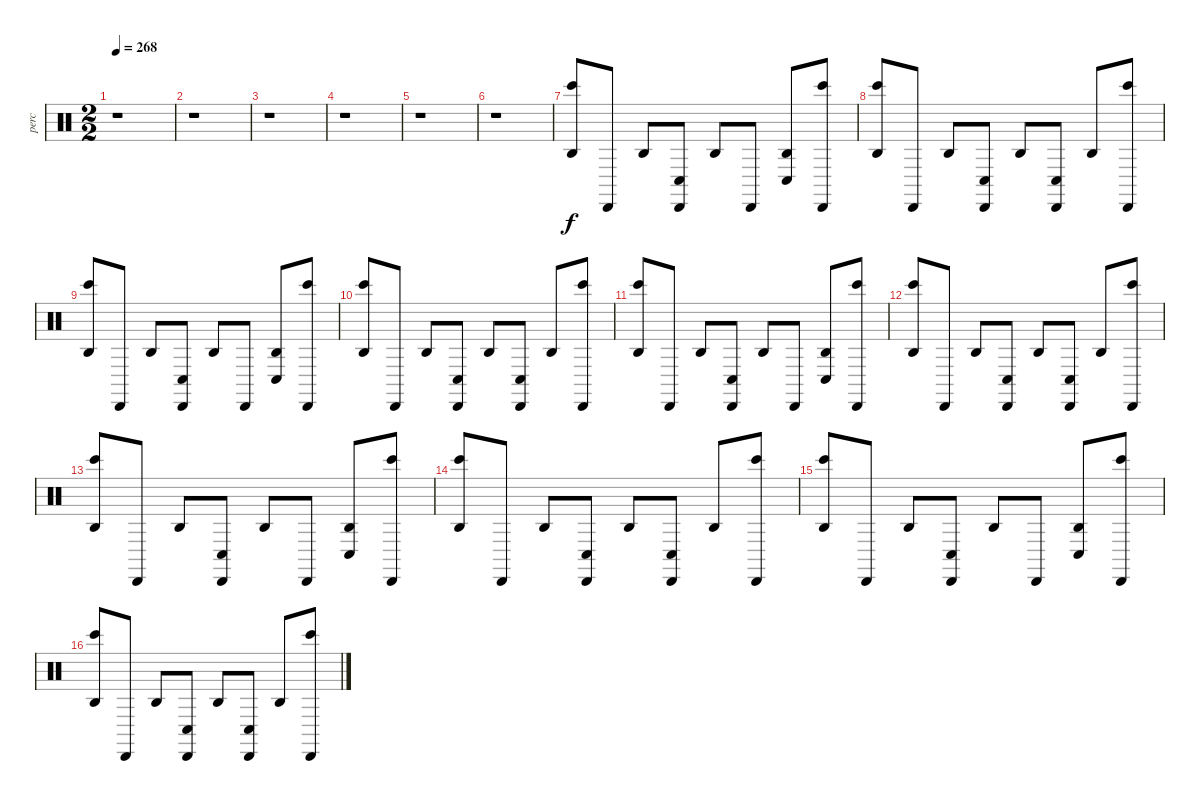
\track ("perc" "perc") {instrument percussion}
\staff {score}
\articulation defaults
\ts (2 2)
\tempo 268
\clef neutral
\ks c
r.1{dy f} |
r.1 |
r.1 |
r.1 |
r.1 |
r.1 |
("Bongo High (hit)" "Agogo high (hit)").8 "Cabasa (hit)".8 "Agogo high (hit)".8 ("Conga low (hit)" "Cabasa (hit)").8 "Agogo high (hit)".8 "Cabasa (hit)".8 ("Conga low (hit)" "Agogo high (hit)").8 ("Bongo High (hit)" "Cabasa (hit)").8 |
("Bongo High (hit)" "Agogo high (hit)").8 "Cabasa (hit)".8 "Agogo high (hit)".8 ("Conga low (hit)" "Cabasa (hit)").8 "Agogo high (hit)".8 ("Conga low (hit)" "Cabasa (hit)").8 "Agogo high (hit)".8 ("Bongo High (hit)" "Cabasa (hit)").8 |
("Bongo High (hit)" "Agogo high (hit)").8 "Cabasa (hit)".8 "Agogo high (hit)".8 ("Conga low (hit)" "Cabasa (hit)").8 "Agogo high (hit)".8 "Cabasa (hit)".8 ("Conga low (hit)" "Agogo high (hit)").8 ("Bongo High (hit)" "Cabasa (hit)").8 |
("Bongo High (hit)" "Agogo high (hit)").8 "Cabasa (hit)".8 "Agogo high (hit)".8 ("Conga low (hit)" "Cabasa (hit)").8 "Agogo high (hit)".8 ("Conga low (hit)" "Cabasa (hit)").8 "Agogo high (hit)".8 ("Bongo High (hit)" "Cabasa (hit)").8 |
("Bongo High (hit)" "Agogo high (hit)").8 "Cabasa (hit)".8 "Agogo high (hit)".8 ("Conga low (hit)" "Cabasa (hit)").8 "Agogo high (hit)".8 "Cabasa (hit)".8 ("Conga low (hit)" "Agogo high (hit)").8 ("Bongo High (hit)" "Cabasa (hit)").8 |
("Bongo High (hit)" "Agogo high (hit)").8 "Cabasa (hit)".8 "Agogo high (hit)".8 ("Conga low (hit)" "Cabasa (hit)").8 "Agogo high (hit)".8 ("Conga low (hit)" "Cabasa (hit)").8 "Agogo high (hit)".8 ("Bongo High (hit)" "Cabasa (hit)").8 |
("Bongo High (hit)" "Agogo high (hit)").8 "Cabasa (hit)".8 "Agogo high (hit)".8 ("Conga low (hit)" "Cabasa (hit)").8 "Agogo high (hit)".8 "Cabasa (hit)".8 ("Conga low (hit)" "Agogo high (hit)").8 ("Bongo High (hit)" "Cabasa (hit)").8 |
("Bongo High (hit)" "Agogo high (hit)").8 "Cabasa (hit)".8 "Agogo high (hit)".8 ("Conga low (hit)" "Cabasa (hit)").8 "Agogo high (hit)".8 ("Conga low (hit)" "Cabasa (hit)").8 "Agogo high (hit)".8 ("Bongo High (hit)" "Cabasa (hit)").8 |
("Bongo High (hit)" "Agogo high (hit)").8 "Cabasa (hit)".8 "Agogo high (hit)".8 ("Conga low (hit)" "Cabasa (hit)").8 "Agogo high (hit)".8 "Cabasa (hit)".8 ("Conga low (hit)" "Agogo high (hit)").8 ("Bongo High (hit)" "Cabasa (hit)").8 |
("Bongo High (hit)" "Agogo high (hit)").8 "Cabasa (hit)".8 "Agogo high (hit)".8 ("Conga low (hit)" "Cabasa (hit)").8 "Agogo high (hit)".8 ("Conga low (hit)" "Cabasa (hit)").8 "Agogo high (hit)".8 ("Bongo High (hit)" "Cabasa (hit)").8
